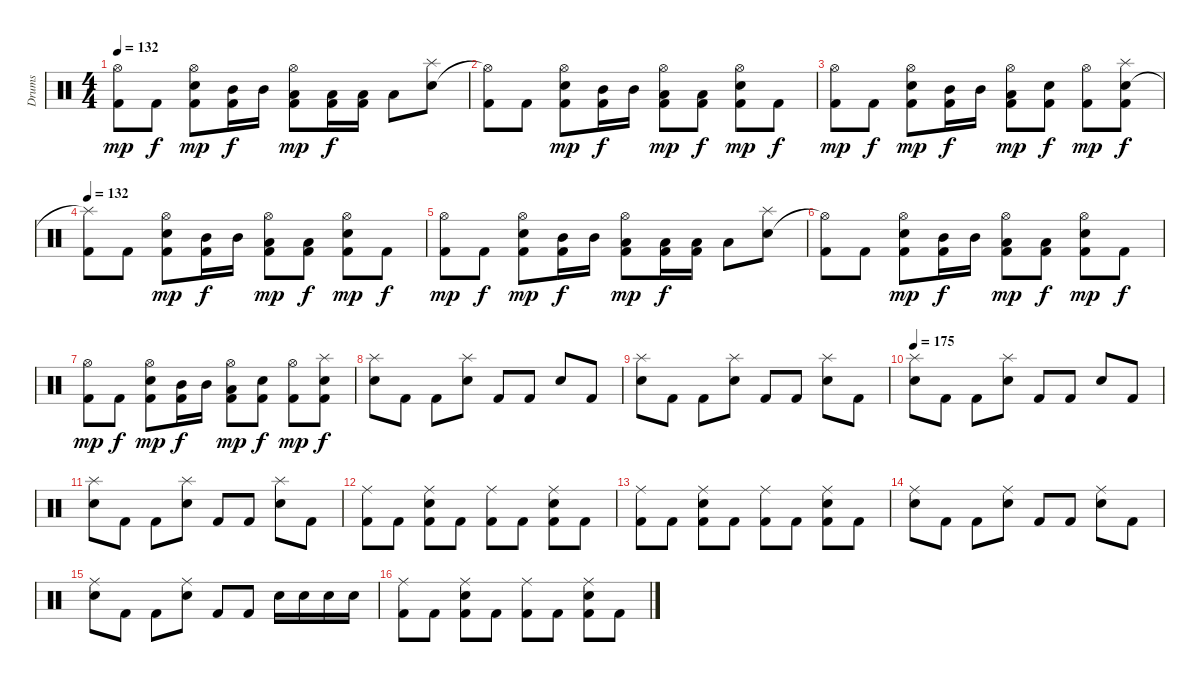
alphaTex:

\track ("Drums" "Drums") {instrument percussion}
\staff {score}
\articulation defaults
\ts (4 4)
\tempo 132
\clef neutral
\ks c
("Hi-Hat (open)" "Kick (hit) 2").8{dy mp} "Kick (hit) 2".8{dy f} ("Snare (hit) 2" "Hi-Hat (open)" "Kick (hit) 2").8{dy mp} ("Mid Tom (hit)" "Kick (hit) 2").16{dy f} "Mid Tom (hit)".16 ("Hi-Hat (open)" "Low Tom (hit)" "Kick (hit) 2").8{dy mp} ("Low Tom (hit)" "Kick (hit) 2").16{dy f} ("Low Tom (hit)" "Kick (hit) 2").16 "Low Tom (hit)".8 ("Snare (hit) 2" "Splash (hit)").8 |
("Hi-Hat (open)"{t} "Kick (hit) 2").8 "Kick (hit) 2".8 ("Snare (hit) 2" "Hi-Hat (open)" "Kick (hit) 2").8{dy mp} ("Mid Tom (hit)" "Kick (hit) 2").16{dy f} "Mid Tom (hit)".16 ("Hi-Hat (open)" "Low Tom (hit)" "Kick (hit) 2").8{dy mp} ("Low Tom (hit)" "Kick (hit) 2").8{dy f} ("Snare (hit) 2" "Hi-Hat (open)" "Kick (hit) 2").8{dy mp} "Kick (hit) 2".8{dy f} |
("Hi-Hat (open)" "Kick (hit) 2").8{dy mp} "Kick (hit) 2".8{dy f} ("Snare (hit) 2" "Hi-Hat (open)" "Kick (hit) 2").8{dy mp} ("Mid Tom (hit)" "Kick (hit) 2").16{dy f} "Mid Tom (hit)".16 ("Hi-Hat (open)" "Low Tom (hit)" "Kick (hit) 2").8{dy mp} ("Snare (hit) 2" "Kick (hit) 2").8{dy f} ("Hi-Hat (open)" "Kick (hit) 2").8{dy mp} ("Snare (hit) 2" "Splash (hit)" "Kick (hit) 2").8{dy f} |
\tempo 132
("Splash (hit)"{t} "Kick (hit) 2").8 "Kick (hit) 2".8 ("Snare (hit) 2" "Hi-Hat (open)" "Kick (hit) 2").8{dy mp} ("Mid Tom (hit)" "Kick (hit) 2").16{dy f} "Mid Tom (hit)".16 ("Hi-Hat (open)" "Low Tom (hit)" "Kick (hit) 2").8{dy mp} ("Low Tom (hit)" "Kick (hit) 2").8{dy f} ("Snare (hit) 2" "Hi-Hat (open)" "Kick (hit) 2").8{dy mp} "Kick (hit) 2".8{dy f} |
("Hi-Hat (open)" "Kick (hit) 2").8{dy mp} "Kick (hit) 2".8{dy f} ("Snare (hit) 2" "Hi-Hat (open)" "Kick (hit) 2").8{dy mp} ("Mid Tom (hit)" "Kick (hit) 2").16{dy f} "Mid Tom (hit)".16 ("Hi-Hat (open)" "Low Tom (hit)" "Kick (hit) 2").8{dy mp} ("Low Tom (hit)" "Kick (hit) 2").16{dy f} ("Low Tom (hit)" "Kick (hit) 2").16 "Low Tom (hit)".8 ("Snare (hit) 2" "Splash (hit)").8 |
("Hi-Hat (open)"{t} "Kick (hit) 2").8 "Kick (hit) 2".8 ("Snare (hit) 2" "Hi-Hat (open)" "Kick (hit) 2").8{dy mp} ("Mid Tom (hit)" "Kick (hit) 2").16{dy f} "Mid Tom (hit)".16 ("Hi-Hat (open)" "Low Tom (hit)" "Kick (hit) 2").8{dy mp} ("Low Tom (hit)" "Kick (hit) 2").8{dy f} ("Snare (hit) 2" "Hi-Hat (open)" "Kick (hit) 2").8{dy mp} "Kick (hit) 2".8{dy f} |
("Hi-Hat (open)" "Kick (hit) 2").8{dy mp} "Kick (hit) 2".8{dy f} ("Snare (hit) 2" "Hi-Hat (open)" "Kick (hit) 2").8{dy mp} ("Mid Tom (hit)" "Kick (hit) 2").16{dy f} "Mid Tom (hit)".16 ("Hi-Hat (open)" "Low Tom (hit)" "Kick (hit) 2").8{dy mp} ("Snare (hit) 2" "Kick (hit) 2").8{dy f} ("Hi-Hat (open)" "Kick (hit) 2").8{dy mp} ("Snare (hit) 2" "Splash (hit)" "Kick (hit) 2").8{dy f} |
("Snare (hit) 2" "Splash (hit)").8 "Kick (hit) 2".8 "Kick (hit) 2".8 ("Snare (hit) 2" "Splash (hit)").8 "Kick (hit) 2".8 "Kick (hit) 2".8 "Snare (hit) 2".8 "Kick (hit) 2".8 |
("Snare (hit) 2" "Splash (hit)").8 "Kick (hit) 2".8 "Kick (hit) 2".8 ("Snare (hit) 2" "Splash (hit)").8 "Kick (hit) 2".8 "Kick (hit) 2".8 ("Snare (hit) 2" "Splash (hit)").8 "Kick (hit) 2".8 |
\tempo 175
("Snare (hit) 2" "Splash (hit)").8 "Kick (hit) 2".8 "Kick (hit) 2".8 ("Snare (hit) 2" "Splash (hit)").8 "Kick (hit) 2".8 "Kick (hit) 2".8 "Snare (hit) 2".8 "Kick (hit) 2".8 |
("Snare (hit) 2" "Splash (hit)").8 "Kick (hit) 2".8 "Kick (hit) 2".8 ("Snare (hit) 2" "Splash (hit)").8 "Kick (hit) 2".8 "Kick (hit) 2".8 ("Snare (hit) 2" "Splash (hit)").8 "Kick (hit) 2".8 |
("Ride (middle)" "Kick (hit) 2").8 "Kick (hit) 2".8 ("Ride (middle)" "Snare (hit) 2" "Kick (hit) 2").8 "Kick (hit) 2".8 ("Ride (middle)" "Kick (hit) 2").8 "Kick (hit) 2".8 ("Ride (middle)" "Snare (hit) 2" "Kick (hit) 2").8 "Kick (hit) 2".8 |
("Ride (middle)" "Kick (hit) 2").8 "Kick (hit) 2".8 ("Ride (middle)" "Snare (hit) 2" "Kick (hit) 2").8 "Kick (hit) 2".8 ("Ride (middle)" "Kick (hit) 2").8 "Kick (hit) 2".8 ("Ride (middle)" "Snare (hit) 2" "Kick (hit) 2").8 "Kick (hit) 2".8 |
("Snare (hit) 2" "Ride (middle)").8 "Kick (hit) 2".8 "Kick (hit) 2".8 ("Snare (hit) 2" "Ride (middle)").8 "Kick (hit) 2".8 "Kick (hit) 2".8 ("Snare (hit) 2" "Ride (middle)").8 "Kick (hit) 2".8 |
("Snare (hit) 2" "Ride (middle)").8 "Kick (hit) 2".8 "Kick (hit) 2".8 ("Snare (hit) 2" "Ride (middle)").8 "Kick (hit) 2".8 "Kick (hit) 2".8 "Snare (hit) 2".16 "Snare (hit) 2".16 "Snare (hit) 2".16 "Snare (hit) 2".16 |
("Ride (middle)" "Kick (hit) 2").8 "Kick (hit) 2".8 ("Ride (middle)" "Snare (hit) 2" "Kick (hit) 2").8 "Kick (hit) 2".8 ("Ride (middle)" "Kick (hit) 2").8 "Kick (hit) 2".8 ("Ride (middle)" "Snare (hit) 2" "Kick (hit) 2").8 "Kick (hit) 2".8
